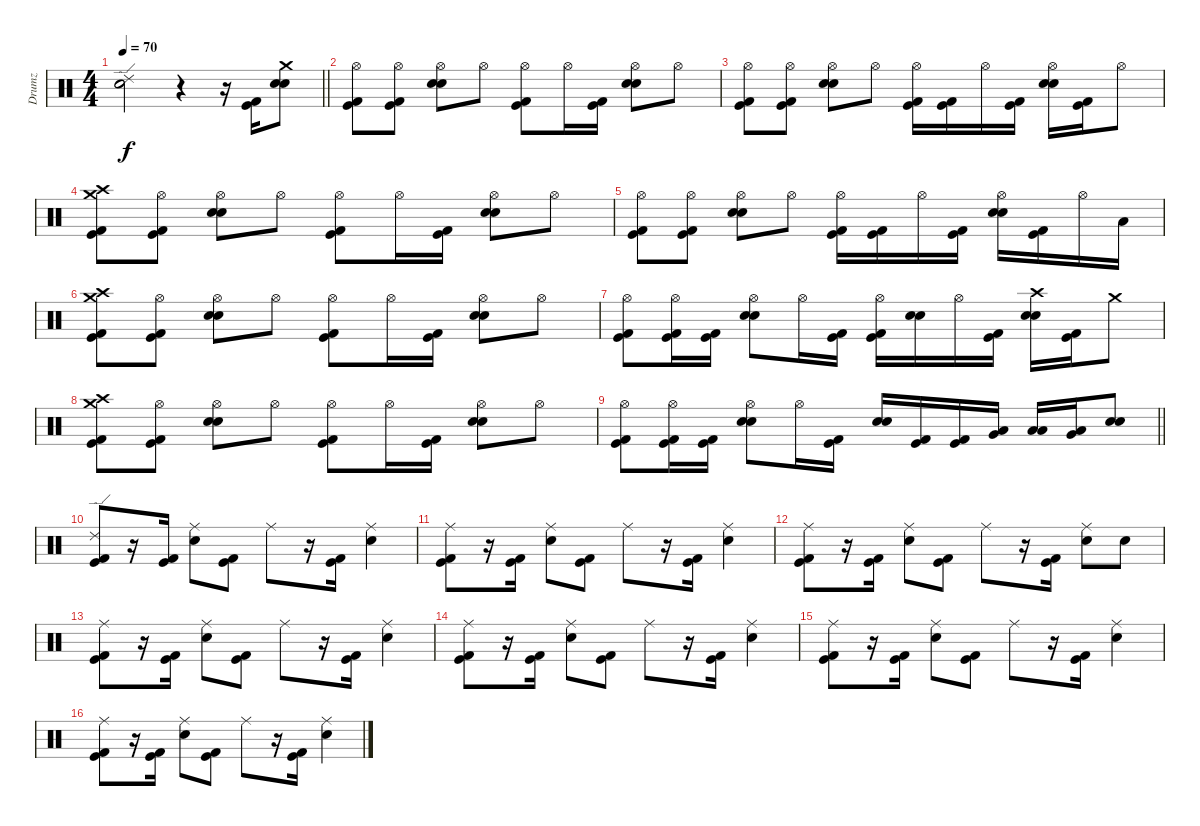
\track ("Drumz" "Drumz") {instrument percussion}
\staff {score}
\articulation defaults
\ts (4 4)
\tempo 70
\clef neutral
\barLineRight lightlight
\ks c
("Ride (edge) 2" "Electric Snare (hit)" "Snare (hit) 2").2{dy f} r.4 r.16 ("Kick (hit)" "Kick (hit) 2").16 ("Crash medium (hit)" "Electric Snare (hit)" "Snare (hit) 2").8 |
("Hi-Hat (open)" "Kick (hit) 2" "Kick (hit)").8 ("Hi-Hat (open)" "Kick (hit) 2" "Kick (hit)").8 ("Hi-Hat (open)" "Electric Snare (hit)" "Electric Snare (hit)").8 "Hi-Hat (open)".8 ("Hi-Hat (open)" "Kick (hit) 2" "Kick (hit)").8 "Hi-Hat (open)".16 ("Kick (hit) 2" "Kick (hit)").16 ("Hi-Hat (open)" "Electric Snare (hit)" "Electric Snare (hit)").8 "Hi-Hat (open)".8 |
("Hi-Hat (open)" "Kick (hit) 2" "Kick (hit)").8 ("Hi-Hat (open)" "Kick (hit) 2" "Kick (hit)").8 ("Hi-Hat (open)" "Electric Snare (hit)" "Electric Snare (hit)").8 "Hi-Hat (open)".8 ("Hi-Hat (open)" "Kick (hit) 2" "Kick (hit)").16 ("Kick (hit) 2" "Kick (hit)").16 "Hi-Hat (open)".16 ("Kick (hit) 2" "Kick (hit)").16 ("Hi-Hat (open)" "Electric Snare (hit)" "Electric Snare (hit)").16 ("Kick (hit) 2" "Kick (hit)").16 "Hi-Hat (open)".8 |
("Crash high (hit)" "Crash medium (hit)" "Kick (hit) 2" "Kick (hit)").8 ("Hi-Hat (open)" "Kick (hit) 2" "Kick (hit)").8 ("Hi-Hat (open)" "Electric Snare (hit)" "Electric Snare (hit)").8 "Hi-Hat (open)".8 ("Hi-Hat (open)" "Kick (hit) 2" "Kick (hit)").8 "Hi-Hat (open)".16 ("Kick (hit) 2" "Kick (hit)").16 ("Hi-Hat (open)" "Electric Snare (hit)" "Electric Snare (hit)").8 "Hi-Hat (open)".8 |
("Hi-Hat (open)" "Kick (hit) 2" "Kick (hit)").8 ("Hi-Hat (open)" "Kick (hit) 2" "Kick (hit)").8 ("Hi-Hat (open)" "Electric Snare (hit)" "Electric Snare (hit)").8 "Hi-Hat (open)".8 ("Hi-Hat (open)" "Kick (hit) 2" "Kick (hit)").16 ("Kick (hit) 2" "Kick (hit)").16 "Hi-Hat (open)".16 ("Kick (hit) 2" "Kick (hit)").16 ("Hi-Hat (open)" "Electric Snare (hit)" "Electric Snare (hit)").16 ("Kick (hit) 2" "Kick (hit)").16 "Hi-Hat (open)".16 "Low Floor Tom (hit)".16 |
("Crash high (hit)" "Crash medium (hit)" "Kick (hit) 2" "Kick (hit)").8 ("Hi-Hat (open)" "Kick (hit) 2" "Kick (hit)").8 ("Hi-Hat (open)" "Electric Snare (hit)" "Electric Snare (hit)").8 "Hi-Hat (open)".8 ("Hi-Hat (open)" "Kick (hit) 2" "Kick (hit)").8 "Hi-Hat (open)".16 ("Kick (hit) 2" "Kick (hit)").16 ("Hi-Hat (open)" "Electric Snare (hit)" "Electric Snare (hit)").8 "Hi-Hat (open)".8 |
("Hi-Hat (open)" "Kick (hit) 2" "Kick (hit)").8 ("Hi-Hat (open)" "Kick (hit) 2" "Kick (hit)").16 ("Kick (hit) 2" "Kick (hit)").16 ("Hi-Hat (open)" "Electric Snare (hit)" "Electric Snare (hit)").8 "Hi-Hat (open)".16 ("Kick (hit) 2" "Kick (hit)").16 ("Hi-Hat (open)" "Kick (hit)" "Kick (hit) 2").16 ("Electric Snare (hit)" "Electric Snare (hit)").16 "Hi-Hat (open)".16 ("Kick (hit)" "Kick (hit) 2").16 ("Crash high (hit)" "Electric Snare (hit)" "Electric Snare (hit)").16 ("Kick (hit) 2" "Kick (hit)").16 "Crash medium (hit)".8 |
("Crash high (hit)" "Crash medium (hit)" "Kick (hit) 2" "Kick (hit)").8 ("Hi-Hat (open)" "Kick (hit) 2" "Kick (hit)").8 ("Hi-Hat (open)" "Electric Snare (hit)" "Electric Snare (hit)").8 "Hi-Hat (open)".8 ("Hi-Hat (open)" "Kick (hit) 2" "Kick (hit)").8 "Hi-Hat (open)".16 ("Kick (hit) 2" "Kick (hit)").16 ("Hi-Hat (open)" "Electric Snare (hit)" "Electric Snare (hit)").8 "Hi-Hat (open)".8 |
\barLineRight lightlight
("Hi-Hat (open)" "Kick (hit) 2" "Kick (hit)").8 ("Hi-Hat (open)" "Kick (hit)" "Kick (hit) 2").16 ("Kick (hit)" "Kick (hit) 2").16 ("Hi-Hat (open)" "Electric Snare (hit)" "Electric Snare (hit)").8 "Hi-Hat (open)".16 ("Kick (hit)" "Kick (hit) 2").16 ("Snare (hit) 2" "Electric Snare (hit)").16 ("Kick (hit)" "Kick (hit) 2").16 ("Kick (hit)" "Kick (hit) 2").16 ("Very Low Tom (hit)" "Low Floor Tom (hit)").16 ("Low Tom (hit)" "Low Tom (hit)").16 ("Very Low Tom (hit)" "Low Floor Tom (hit)").16 ("Electric Snare (hit)" "Snare (hit) 2").8 |
("Ride (edge) 2" "Kick (hit)" "Kick (hit) 2").8{volume 12} r.16 ("Kick (hit)" "Kick (hit) 2").16 ("Ride (middle)" "Electric Snare (hit)").8 ("Kick (hit)" "Kick (hit) 2").8 "Ride (middle)".8 r.16 ("Kick (hit)" "Kick (hit) 2").16 ("Ride (middle)" "Electric Snare (hit)").4 |
("Ride (middle)" "Kick (hit)" "Kick (hit) 2").8 r.16 ("Kick (hit)" "Kick (hit) 2").16 ("Ride (middle)" "Electric Snare (hit)").8 ("Kick (hit)" "Kick (hit) 2").8 "Ride (middle)".8 r.16 ("Kick (hit)" "Kick (hit) 2").16 ("Ride (middle)" "Electric Snare (hit)").4 |
("Ride (middle)" "Kick (hit)" "Kick (hit) 2").8 r.16 ("Kick (hit)" "Kick (hit) 2").16 ("Ride (middle)" "Electric Snare (hit)").8 ("Kick (hit)" "Kick (hit) 2").8 "Ride (middle)".8 r.16 ("Kick (hit)" "Kick (hit) 2").16 ("Ride (middle)" "Electric Snare (hit)").8 "Electric Snare (hit)".8 |
("Ride (middle)" "Kick (hit)" "Kick (hit) 2").8 r.16 ("Kick (hit)" "Kick (hit) 2").16 ("Ride (middle)" "Electric Snare (hit)").8 ("Kick (hit)" "Kick (hit) 2").8 "Ride (middle)".8 r.16 ("Kick (hit)" "Kick (hit) 2").16 ("Ride (middle)" "Electric Snare (hit)").4 |
("Ride (middle)" "Kick (hit)" "Kick (hit) 2").8 r.16 ("Kick (hit)" "Kick (hit) 2").16 ("Ride (middle)" "Electric Snare (hit)").8 ("Kick (hit)" "Kick (hit) 2").8 "Ride (middle)".8 r.16 ("Kick (hit)" "Kick (hit) 2").16 ("Ride (middle)" "Electric Snare (hit)").4 |
("Ride (middle)" "Kick (hit)" "Kick (hit) 2").8 r.16 ("Kick (hit)" "Kick (hit) 2").16 ("Ride (middle)" "Electric Snare (hit)").8 ("Kick (hit)" "Kick (hit) 2").8 "Ride (middle)".8 r.16 ("Kick (hit)" "Kick (hit) 2").16 ("Ride (middle)" "Electric Snare (hit)").4 |
("Ride (middle)" "Kick (hit)" "Kick (hit) 2").8 r.16 ("Kick (hit)" "Kick (hit) 2").16 ("Ride (middle)" "Electric Snare (hit)").8 ("Kick (hit)" "Kick (hit) 2").8 "Ride (middle)".8 r.16 ("Kick (hit)" "Kick (hit) 2").16 ("Ride (middle)" "Electric Snare (hit)").4
